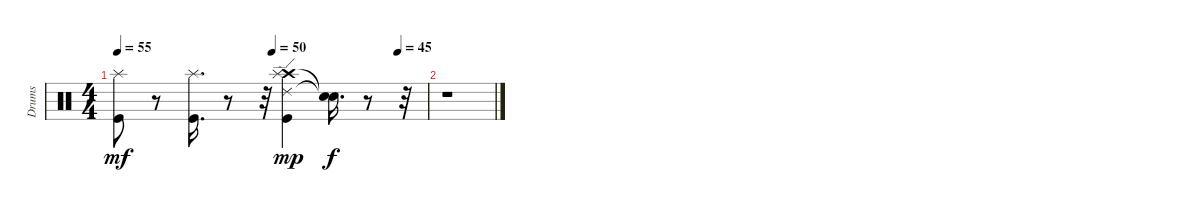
\track ("Drums" "Drums") {instrument percussion}
\staff {score}
\articulation defaults
\ts (4 4)
\tempo 55
\tempo (50 0.5)
\tempo (45 0.90625)
\clef neutral
\ks c
("Splash (hit)" "Kick (hit)").8{dy mf} r.8 ("Kick (hit)" "Splash (hit)").16{d} r.8 r.32 ("Crash high (hit)" "Ride (edge) 2" "Splash (hit)" "Kick (hit)").4{dy mp} ("Snare (hit)"{t} "Snare (hit)"{t}).16{d dy f} r.8 r.32 |
r.1
